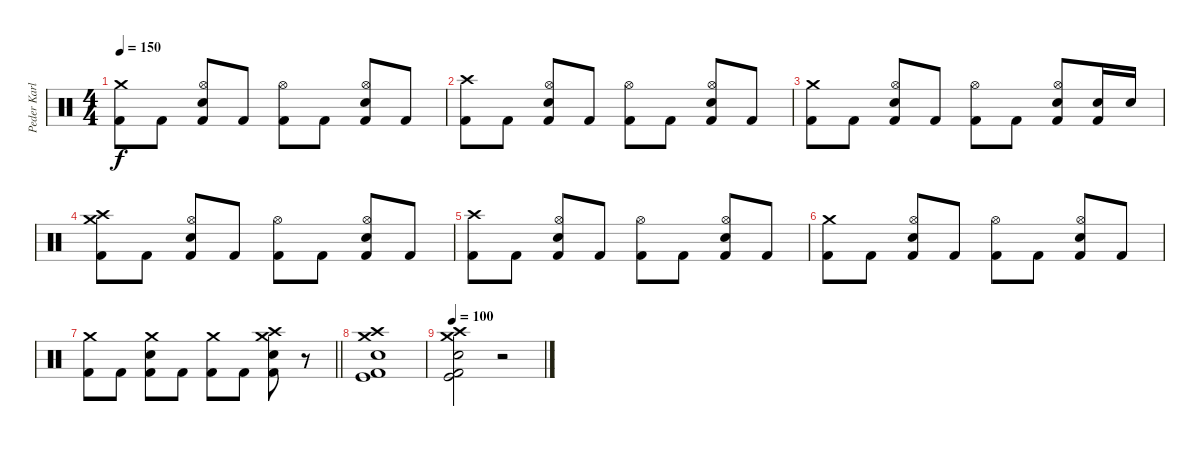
\track ("Peder Karlsson" "Peder Karl") {instrument percussion}
\staff {score}
\articulation defaults
\ts (4 4)
\tempo 150
\clef neutral
\ks c
("Crash medium (hit)" "Kick (hit) 2").8{dy f} "Kick (hit) 2".8 ("Hi-Hat (open)" "Snare (hit) 2" "Kick (hit) 2").8 "Kick (hit) 2".8 ("Hi-Hat (open)" "Kick (hit) 2").8 "Kick (hit) 2".8 ("Hi-Hat (open)" "Snare (hit) 2" "Kick (hit) 2").8 "Kick (hit) 2".8 |
("Crash high (hit)" "Kick (hit) 2").8 "Kick (hit) 2".8 ("Hi-Hat (open)" "Snare (hit) 2" "Kick (hit) 2").8 "Kick (hit) 2".8 ("Hi-Hat (open)" "Kick (hit) 2").8 "Kick (hit) 2".8 ("Hi-Hat (open)" "Snare (hit) 2" "Kick (hit) 2").8 "Kick (hit) 2".8 |
("Crash medium (hit)" "Kick (hit) 2").8 "Kick (hit) 2".8 ("Hi-Hat (open)" "Snare (hit) 2" "Kick (hit) 2").8 "Kick (hit) 2".8 ("Hi-Hat (open)" "Kick (hit) 2").8 "Kick (hit) 2".8 ("Hi-Hat (open)" "Snare (hit) 2" "Kick (hit) 2").8 ("Snare (hit) 2" "Kick (hit) 2").16 "Snare (hit) 2".16 |
("Crash medium (hit)" "Crash high (hit)" "Kick (hit) 2").8 "Kick (hit) 2".8 ("Hi-Hat (open)" "Snare (hit) 2" "Kick (hit) 2").8 "Kick (hit) 2".8 ("Hi-Hat (open)" "Kick (hit) 2").8 "Kick (hit) 2".8 ("Hi-Hat (open)" "Snare (hit) 2" "Kick (hit) 2").8 "Kick (hit) 2".8 |
("Crash high (hit)" "Kick (hit) 2").8 "Kick (hit) 2".8 ("Hi-Hat (open)" "Snare (hit) 2" "Kick (hit) 2").8 "Kick (hit) 2".8 ("Hi-Hat (open)" "Kick (hit) 2").8 "Kick (hit) 2".8 ("Hi-Hat (open)" "Snare (hit) 2" "Kick (hit) 2").8 "Kick (hit) 2".8 |
("Crash medium (hit)" "Kick (hit) 2").8 "Kick (hit) 2".8 ("Hi-Hat (open)" "Snare (hit) 2" "Kick (hit) 2").8 "Kick (hit) 2".8 ("Hi-Hat (open)" "Kick (hit) 2").8 "Kick (hit) 2".8 ("Hi-Hat (open)" "Snare (hit) 2" "Kick (hit) 2").8 "Kick (hit) 2".8 |
\barLineRight lightlight
("Crash medium (hit)" "Kick (hit) 2").8 "Kick (hit) 2".8 ("Crash medium (hit)" "Snare (hit) 2" "Kick (hit) 2").8 "Kick (hit) 2".8 ("Crash medium (hit)" "Kick (hit) 2").8 "Kick (hit) 2".8 ("Crash medium (hit)" "Crash high (hit)" "Snare (hit) 2" "Kick (hit) 2").8 r.8 |
("Crash medium (hit)" "Crash high (hit)" "Snare (hit) 2" "Kick (hit)" "Kick (hit) 2").1 |
\tempo 100
("Crash medium (hit)" "Crash high (hit)" "Snare (hit) 2" "Kick (hit)" "Kick (hit) 2").2 r.2
